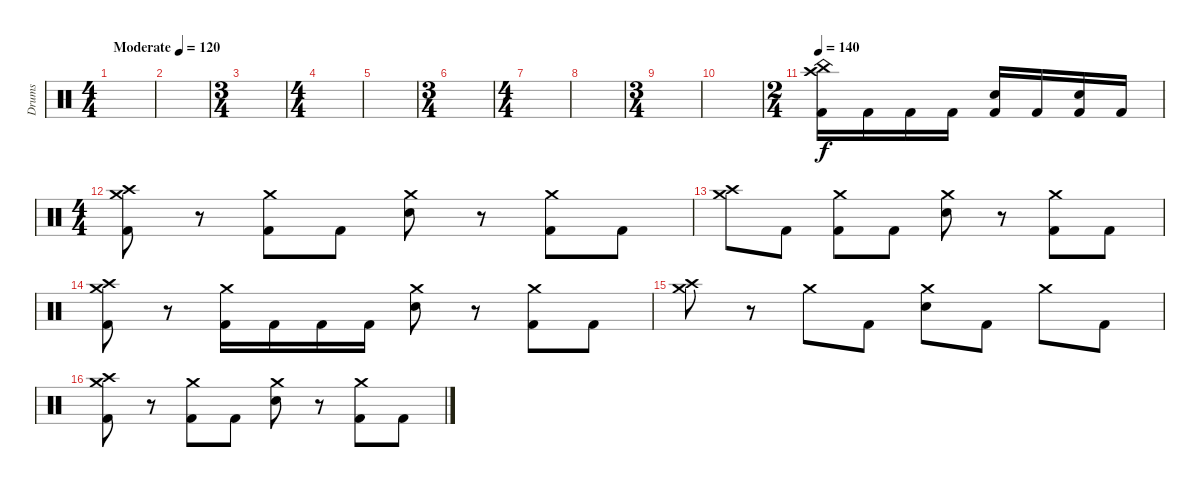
\track ("Drums" "Drums") {instrument percussion}
\staff {score}
\articulation defaults
\ts (4 4)
\tempo (120 "Moderate")
\clef neutral
\ks c
|
|
\ts (3 4)
|
\ts (4 4)
|
|
\ts (3 4)
|
\ts (4 4)
|
|
\ts (3 4)
|
|
\ts (2 4)
\tempo 140
("Crash high (hit)" "China (hit)" "Kick (hit) 2").16 "Kick (hit) 2".16 "Kick (hit) 2".16 "Kick (hit) 2".16 ("Snare (hit) 2" "Kick (hit) 2").16 "Kick (hit) 2".16 ("Snare (hit) 2" "Kick (hit) 2").16 "Kick (hit) 2".16 |
\ts (4 4)
("Crash medium (hit)" "Crash high (hit)" "Kick (hit) 2").8 r.8 ("Crash medium (hit)" "Kick (hit) 2").8 "Kick (hit) 2".8 ("Crash medium (hit)" "Snare (hit) 2").8 r.8 ("Crash medium (hit)" "Kick (hit) 2").8 "Kick (hit) 2".8 |
("Crash medium (hit)" "Crash high (hit)").8 "Kick (hit) 2".8 ("Crash medium (hit)" "Kick (hit) 2").8 "Kick (hit) 2".8 ("Crash medium (hit)" "Snare (hit) 2").8 r.8 ("Crash medium (hit)" "Kick (hit) 2").8 "Kick (hit) 2".8 |
("Crash medium (hit)" "Crash high (hit)" "Kick (hit) 2").8 r.8 ("Crash medium (hit)" "Kick (hit) 2").16 "Kick (hit) 2".16 "Kick (hit) 2".16 "Kick (hit) 2".16 ("Crash medium (hit)" "Snare (hit) 2").8 r.8 ("Crash medium (hit)" "Kick (hit) 2").8 "Kick (hit) 2".8 |
("Crash medium (hit)" "Crash high (hit)").8 r.8 "Crash medium (hit)".8 "Kick (hit) 2".8 ("Crash medium (hit)" "Snare (hit) 2").8 "Kick (hit) 2".8 "Crash medium (hit)".8 "Kick (hit) 2".8 |
("Crash medium (hit)" "Crash high (hit)" "Kick (hit) 2").8 r.8 ("Crash medium (hit)" "Kick (hit) 2").8 "Kick (hit) 2".8 ("Crash medium (hit)" "Snare (hit) 2").8 r.8 ("Crash medium (hit)" "Kick (hit) 2").8 "Kick (hit) 2".8
